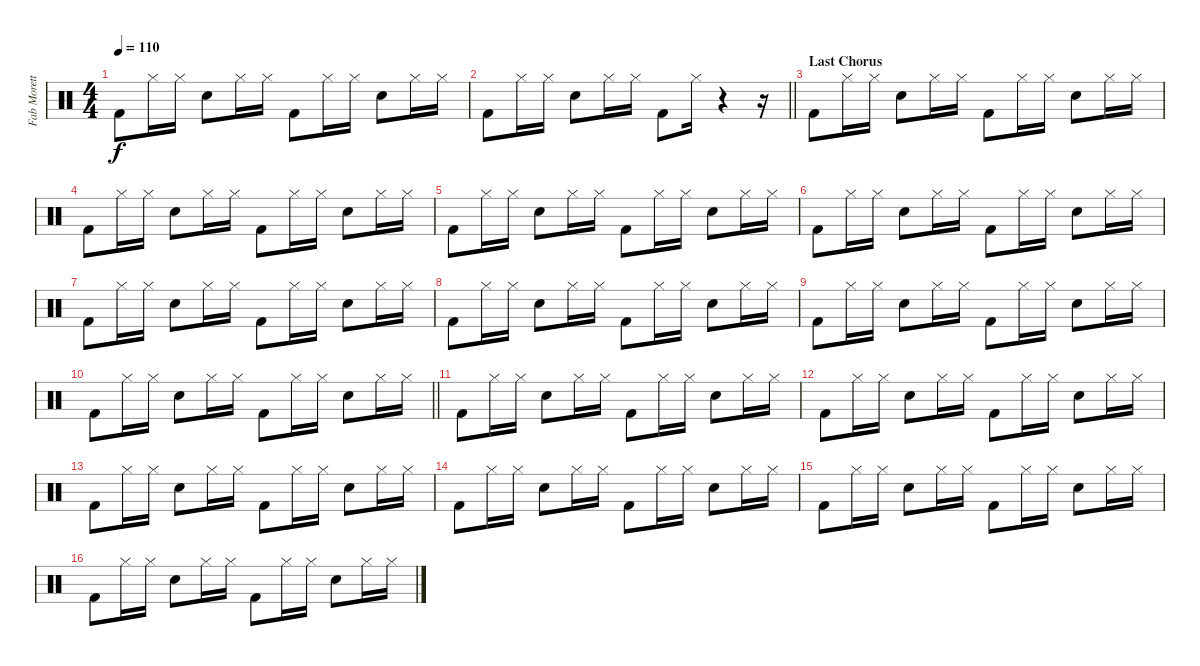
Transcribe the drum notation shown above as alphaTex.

\track ("Fab Moretti" "Fab Morett") {instrument percussion}
\staff {score}
\articulation defaults
\ts (4 4)
\tempo 110
\clef neutral
\ks c "Kick (hit) 2".8{dy f} "Hi-Hat (closed)".16 "Hi-Hat (closed)".16 "Electric Snare (hit)".8 "Hi-Hat (closed)".16 "Hi-Hat (closed)".16 "Kick (hit) 2".8 "Hi-Hat (closed)".16 "Hi-Hat (closed)".16 "Electric Snare (hit)".8 "Hi-Hat (closed)".16 "Hi-Hat (closed)".16
|
\barLineRight lightlight "Kick (hit) 2".8 "Hi-Hat (closed)".16 "Hi-Hat (closed)".16 "Electric Snare (hit)".8 "Hi-Hat (closed)".16 "Hi-Hat (closed)".16 "Kick (hit) 2".8 "Hi-Hat (closed)".16
r.4 r.16 |
\section ("" "Last Chorus")
"Kick (hit) 2".8 "Hi-Hat (closed)".16 "Hi-Hat (closed)".16 "Electric Snare (hit)".8 "Hi-Hat (closed)".16 "Hi-Hat (closed)".16 "Kick (hit) 2".8 "Hi-Hat (closed)".16 "Hi-Hat (closed)".16 "Electric Snare (hit)".8 "Hi-Hat (closed)".16 "Hi-Hat (closed)".16 |
"Kick (hit) 2".8 "Hi-Hat (closed)".16 "Hi-Hat (closed)".16 "Electric Snare (hit)".8 "Hi-Hat (closed)".16 "Hi-Hat (closed)".16 "Kick (hit) 2".8 "Hi-Hat (closed)".16 "Hi-Hat (closed)".16 "Electric Snare (hit)".8 "Hi-Hat (closed)".16 "Hi-Hat (closed)".16 |
"Kick (hit) 2".8 "Hi-Hat (closed)".16 "Hi-Hat (closed)".16 "Electric Snare (hit)".8 "Hi-Hat (closed)".16 "Hi-Hat (closed)".16 "Kick (hit) 2".8 "Hi-Hat (closed)".16 "Hi-Hat (closed)".16 "Electric Snare (hit)".8 "Hi-Hat (closed)".16 "Hi-Hat (closed)".16 |
"Kick (hit) 2".8 "Hi-Hat (closed)".16 "Hi-Hat (closed)".16 "Electric Snare (hit)".8 "Hi-Hat (closed)".16 "Hi-Hat (closed)".16 "Kick (hit) 2".8 "Hi-Hat (closed)".16 "Hi-Hat (closed)".16 "Electric Snare (hit)".8 "Hi-Hat (closed)".16 "Hi-Hat (closed)".16 |
"Kick (hit) 2".8 "Hi-Hat (closed)".16 "Hi-Hat (closed)".16 "Electric Snare (hit)".8 "Hi-Hat (closed)".16 "Hi-Hat (closed)".16 "Kick (hit) 2".8 "Hi-Hat (closed)".16 "Hi-Hat (closed)".16 "Electric Snare (hit)".8 "Hi-Hat (closed)".16 "Hi-Hat (closed)".16 |
"Kick (hit) 2".8 "Hi-Hat (closed)".16 "Hi-Hat (closed)".16 "Electric Snare (hit)".8 "Hi-Hat (closed)".16 "Hi-Hat (closed)".16 "Kick (hit) 2".8 "Hi-Hat (closed)".16 "Hi-Hat (closed)".16 "Electric Snare (hit)".8 "Hi-Hat (closed)".16 "Hi-Hat (closed)".16 |
"Kick (hit) 2".8 "Hi-Hat (closed)".16 "Hi-Hat (closed)".16 "Electric Snare (hit)".8 "Hi-Hat (closed)".16 "Hi-Hat (closed)".16 "Kick (hit) 2".8 "Hi-Hat (closed)".16 "Hi-Hat (closed)".16 "Electric Snare (hit)".8 "Hi-Hat (closed)".16 "Hi-Hat (closed)".16 |
\barLineRight lightlight "Kick (hit) 2".8 "Hi-Hat (closed)".16 "Hi-Hat (closed)".16 "Electric Snare (hit)".8 "Hi-Hat (closed)".16 "Hi-Hat (closed)".16 "Kick (hit) 2".8 "Hi-Hat (closed)".16 "Hi-Hat (closed)".16 "Electric Snare (hit)".8 "Hi-Hat (closed)".16 "Hi-Hat (closed)".16
|
"Kick (hit) 2".8 "Hi-Hat (closed)".16 "Hi-Hat (closed)".16 "Electric Snare (hit)".8 "Hi-Hat (closed)".16 "Hi-Hat (closed)".16 "Kick (hit) 2".8 "Hi-Hat (closed)".16 "Hi-Hat (closed)".16 "Electric Snare (hit)".8 "Hi-Hat (closed)".16 "Hi-Hat (closed)".16 |
"Kick (hit) 2".8 "Hi-Hat (closed)".16 "Hi-Hat (closed)".16 "Electric Snare (hit)".8 "Hi-Hat (closed)".16 "Hi-Hat (closed)".16 "Kick (hit) 2".8 "Hi-Hat (closed)".16 "Hi-Hat (closed)".16 "Electric Snare (hit)".8 "Hi-Hat (closed)".16 "Hi-Hat (closed)".16 |
"Kick (hit) 2".8 "Hi-Hat (closed)".16 "Hi-Hat (closed)".16 "Electric Snare (hit)".8 "Hi-Hat (closed)".16 "Hi-Hat (closed)".16 "Kick (hit) 2".8 "Hi-Hat (closed)".16 "Hi-Hat (closed)".16 "Electric Snare (hit)".8 "Hi-Hat (closed)".16 "Hi-Hat (closed)".16 |
"Kick (hit) 2".8 "Hi-Hat (closed)".16 "Hi-Hat (closed)".16 "Electric Snare (hit)".8 "Hi-Hat (closed)".16 "Hi-Hat (closed)".16 "Kick (hit) 2".8 "Hi-Hat (closed)".16 "Hi-Hat (closed)".16 "Electric Snare (hit)".8 "Hi-Hat (closed)".16 "Hi-Hat (closed)".16 |
"Kick (hit) 2".8 "Hi-Hat (closed)".16 "Hi-Hat (closed)".16 "Electric Snare (hit)".8 "Hi-Hat (closed)".16 "Hi-Hat (closed)".16 "Kick (hit) 2".8 "Hi-Hat (closed)".16 "Hi-Hat (closed)".16 "Electric Snare (hit)".8 "Hi-Hat (closed)".16 "Hi-Hat (closed)".16 |
"Kick (hit) 2".8 "Hi-Hat (closed)".16 "Hi-Hat (closed)".16 "Electric Snare (hit)".8 "Hi-Hat (closed)".16 "Hi-Hat (closed)".16 "Kick (hit) 2".8 "Hi-Hat (closed)".16 "Hi-Hat (closed)".16 "Electric Snare (hit)".8 "Hi-Hat (closed)".16 "Hi-Hat (closed)".16
